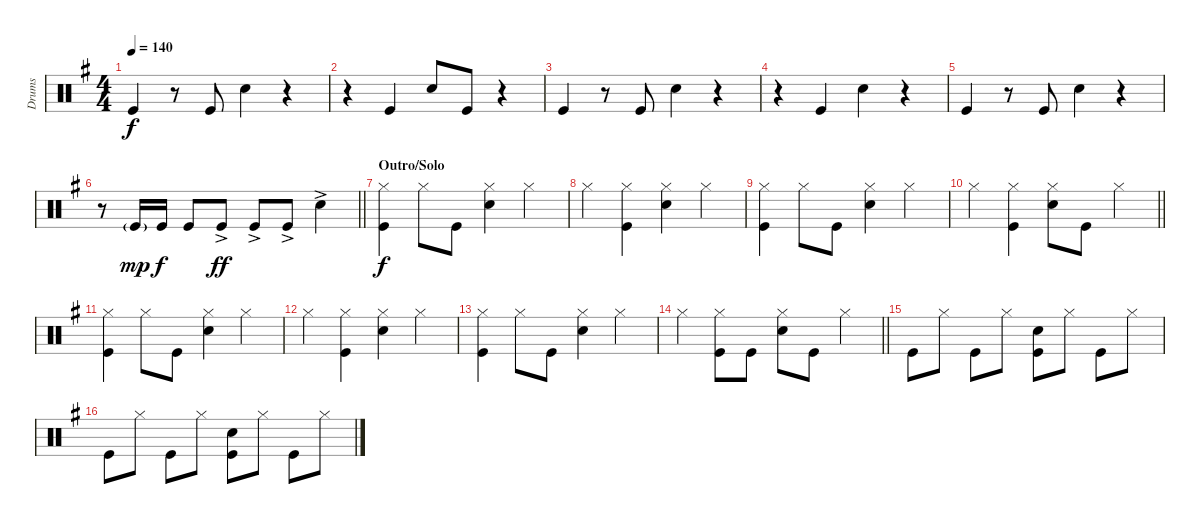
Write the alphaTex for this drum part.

\track ("Drums" "Drums") {instrument percussion}
\staff {score}
\articulation defaults
\ts (4 4)
\tempo 140
\clef neutral
\ks g "Kick (hit)".4{dy f}
r.8 "Kick (hit)".8 "Snare (hit) 2".4 r.4 |
r.4 "Kick (hit)".4 "Snare (hit) 2".8 "Kick (hit)".8 r.4 |
"Kick (hit)".4 r.8 "Kick (hit)".8 "Snare (hit) 2".4 r.4 |
r.4 "Kick (hit)".4 "Snare (hit) 2".4 r.4 |
"Kick (hit)".4 r.8 "Kick (hit)".8 "Snare (hit) 2".4 r.4 |
\barLineRight lightlight
r.8 "Kick (hit)"{g}.16{dy mp} "Kick (hit)".16{dy f} "Kick (hit)".8 "Kick (hit)"{ac}.8{dy ff} "Kick (hit)"{ac}.8 "Kick (hit)"{ac}.8 "Snare (hit) 2"{ac}.4 |
\section ("" "Outro/Solo")
("Hi-Hat (closed)" "Kick (hit)").4{dy f} "Hi-Hat (closed)".8 "Kick (hit)".8 ("Hi-Hat (closed)" "Snare (hit) 2").4 "Hi-Hat (closed)".4 |
"Hi-Hat (closed)".4 ("Hi-Hat (closed)" "Kick (hit)").4 ("Hi-Hat (closed)" "Snare (hit) 2").4 "Hi-Hat (closed)".4 |
("Hi-Hat (closed)" "Kick (hit)").4 "Hi-Hat (closed)".8 "Kick (hit)".8 ("Hi-Hat (closed)" "Snare (hit) 2").4 "Hi-Hat (closed)".4 |
\barLineRight lightlight "Hi-Hat (closed)".4
("Hi-Hat (closed)" "Kick (hit)").4 ("Hi-Hat (closed)" "Snare (hit) 2").8 "Kick (hit)".8 "Hi-Hat (closed)".4 |
("Hi-Hat (closed)" "Kick (hit)").4 "Hi-Hat (closed)".8 "Kick (hit)".8 ("Hi-Hat (closed)" "Snare (hit) 2").4 "Hi-Hat (closed)".4 |
"Hi-Hat (closed)".4 ("Hi-Hat (closed)" "Kick (hit)").4 ("Hi-Hat (closed)" "Snare (hit) 2").4 "Hi-Hat (closed)".4 |
("Hi-Hat (closed)" "Kick (hit)").4 "Hi-Hat (closed)".8 "Kick (hit)".8 ("Hi-Hat (closed)" "Snare (hit) 2").4 "Hi-Hat (closed)".4 |
\barLineRight lightlight "Hi-Hat (closed)".4
("Hi-Hat (closed)" "Kick (hit)").8 "Kick (hit)".8 ("Hi-Hat (closed)" "Snare (hit) 2").8 "Kick (hit)".8 "Hi-Hat (closed)".4 |
"Kick (hit)".8 "Hi-Hat (closed)".8 "Kick (hit)".8 "Hi-Hat (closed)".8 ("Snare (hit) 2" "Kick (hit)").8 "Hi-Hat (closed)".8 "Kick (hit)".8 "Hi-Hat (closed)".8 |
"Kick (hit)".8 "Hi-Hat (closed)".8 "Kick (hit)".8 "Hi-Hat (closed)".8 ("Snare (hit) 2" "Kick (hit)").8 "Hi-Hat (closed)".8 "Kick (hit)".8 "Hi-Hat (closed)".8
